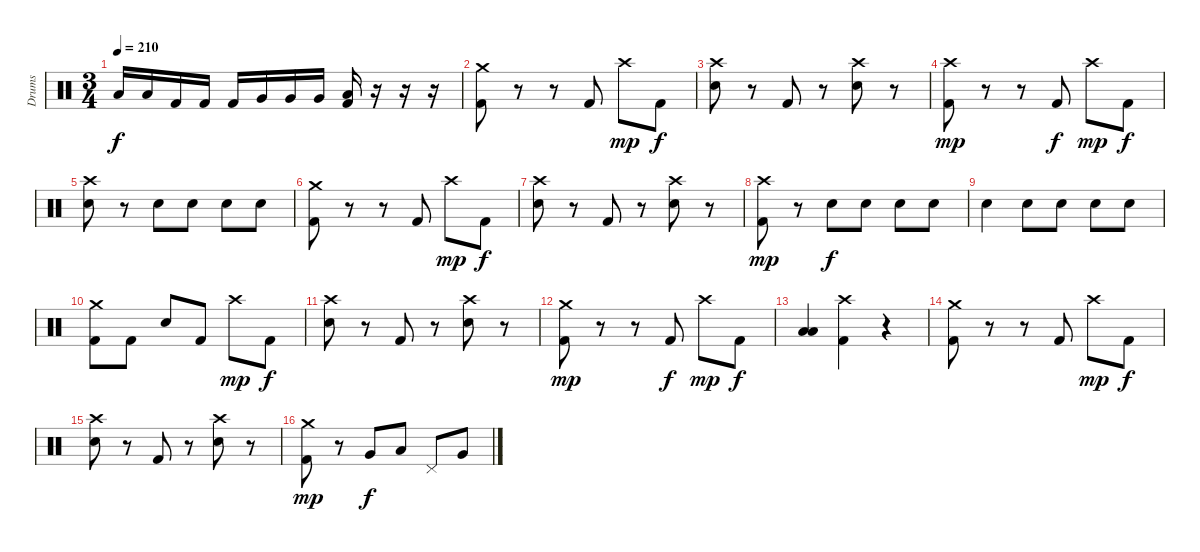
\track ("Drums" "Drums") {instrument percussion}
\staff {score}
\articulation defaults
\ts (3 4)
\tempo 210
\clef neutral
\ks c "Low Tom (hit)".16{dy f} "Low Tom (hit)".16 "Kick (hit) 2".16 "Kick (hit) 2".16 "Kick (hit) 2".16 "Very Low Tom (hit)".16 "Very Low Tom (hit)".16 "Very Low Tom (hit)".16
("Low Floor Tom (hit)" "Kick (hit) 2").16 r.16 r.16 r.16 |
("Crash medium (hit)" "Kick (hit) 2").8 r.8 r.8 "Kick (hit) 2".8 "Crash high (hit)".8{dy mp} "Kick (hit) 2".8{dy f} |
("Crash high (hit)" "Electric Snare (hit)").8 r.8 "Kick (hit) 2".8 r.8 ("Crash high (hit)" "Electric Snare (hit)").8 r.8 |
("Crash high (hit)" "Kick (hit) 2").8{dy mp} r.8 r.8 "Kick (hit) 2".8{dy f} "Crash high (hit)".8{dy mp} "Kick (hit) 2".8{dy f} |
("Crash high (hit)" "Electric Snare (hit)").8 r.8 "Electric Snare (hit)".8 "Electric Snare (hit)".8 "Electric Snare (hit)".8 "Electric Snare (hit)".8 |
("Crash medium (hit)" "Kick (hit) 2").8 r.8 r.8 "Kick (hit) 2".8 "Crash high (hit)".8{dy mp} "Kick (hit) 2".8{dy f} |
("Crash high (hit)" "Electric Snare (hit)").8 r.8 "Kick (hit) 2".8 r.8 ("Crash high (hit)" "Electric Snare (hit)").8 r.8 |
("Crash high (hit)" "Kick (hit) 2").8{dy mp} r.8 "Electric Snare (hit)".8{dy f} "Electric Snare (hit)".8 "Electric Snare (hit)".8 "Electric Snare (hit)".8 |
"Electric Snare (hit)".4 "Electric Snare (hit)".8 "Electric Snare (hit)".8 "Electric Snare (hit)".8 "Electric Snare (hit)".8 |
("Crash medium (hit)" "Kick (hit) 2").8 "Kick (hit) 2".8 "Electric Snare (hit)".8 "Kick (hit) 2".8 "Crash high (hit)".8{dy mp} "Kick (hit) 2".8{dy f} |
("Crash high (hit)" "Electric Snare (hit)").8 r.8 "Kick (hit) 2".8 r.8 ("Crash high (hit)" "Electric Snare (hit)").8 r.8 |
("Crash medium (hit)" "Kick (hit) 2").8{dy mp} r.8 r.8 "Kick (hit) 2".8{dy f} "Crash high (hit)".8{dy mp} "Kick (hit) 2".8{dy f} |
("Low Floor Tom (hit)" "Low Floor Tom (hit)").4{bu 480} ("Crash high (hit)" "Kick (hit) 2").4 r.4 |
("Crash medium (hit)" "Kick (hit) 2").8 r.8 r.8 "Kick (hit) 2".8 "Crash high (hit)".8{dy mp} "Kick (hit) 2".8{dy f} |
("Crash high (hit)" "Electric Snare (hit)").8 r.8 "Kick (hit) 2".8 r.8 ("Crash high (hit)" "Electric Snare (hit)").8 r.8 |
("Crash medium (hit)" "Kick (hit) 2").8{dy mp} r.8 "Very Low Tom (hit)".8{dy f} "Low Tom (hit)".8 "Pedal Hi-Hat (hit)".8 "Very Low Tom (hit)".8
